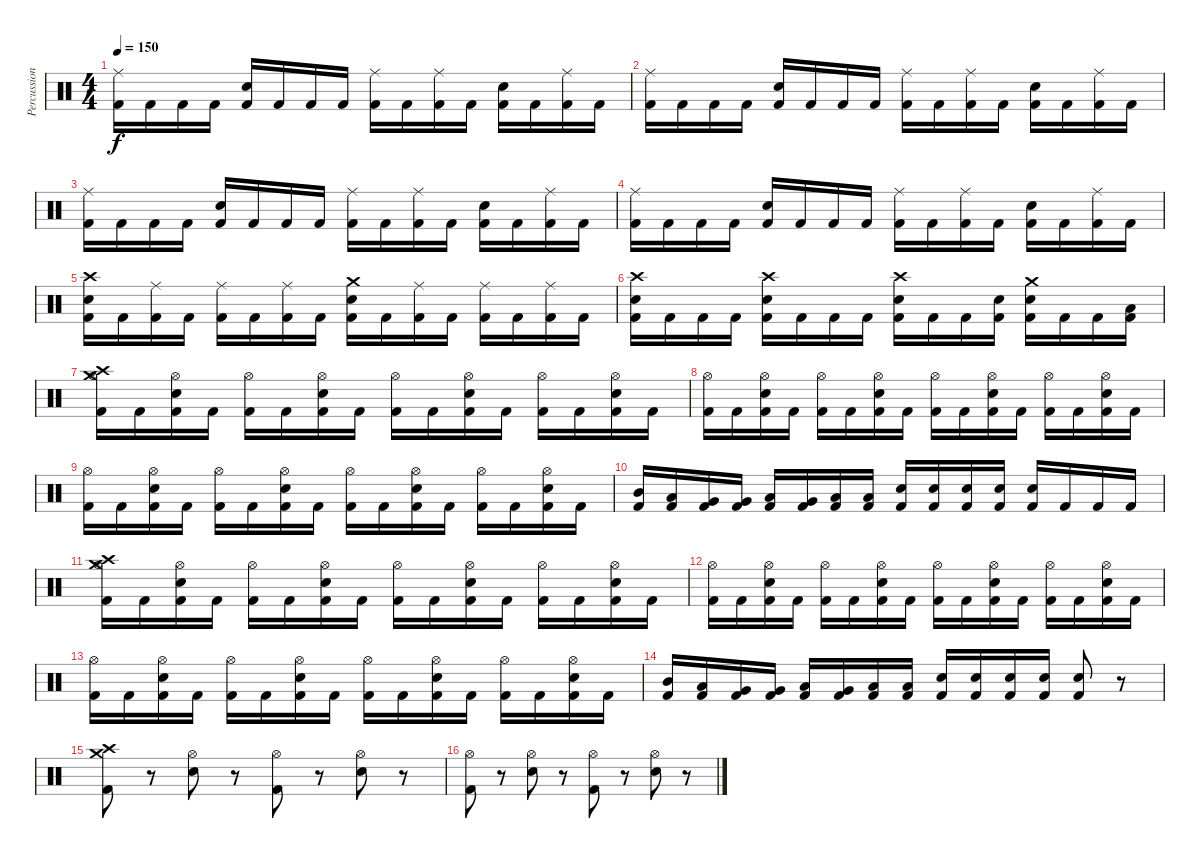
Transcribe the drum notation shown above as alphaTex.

\track ("Percussion" "Percussion") {instrument percussion}
\staff {score}
\articulation defaults
\ts (4 4)
\tempo 150
\clef neutral
\ks c
("Kick (hit) 2" "Ride (middle)").16{dy f} "Kick (hit) 2".16 "Kick (hit) 2".16 "Kick (hit) 2".16 ("Kick (hit) 2" "Electric Snare (hit)").16 "Kick (hit) 2".16 "Kick (hit) 2".16 "Kick (hit) 2".16 ("Kick (hit) 2" "Ride (middle)").16 "Kick (hit) 2".16 ("Kick (hit) 2" "Ride (middle)").16 "Kick (hit) 2".16 ("Kick (hit) 2" "Electric Snare (hit)").16 "Kick (hit) 2".16 ("Kick (hit) 2" "Ride (middle)").16 "Kick (hit) 2".16 |
("Kick (hit) 2" "Ride (middle)").16 "Kick (hit) 2".16 "Kick (hit) 2".16 "Kick (hit) 2".16 ("Kick (hit) 2" "Electric Snare (hit)").16 "Kick (hit) 2".16 "Kick (hit) 2".16 "Kick (hit) 2".16 ("Kick (hit) 2" "Ride (middle)").16 "Kick (hit) 2".16 ("Kick (hit) 2" "Ride (middle)").16 "Kick (hit) 2".16 ("Kick (hit) 2" "Electric Snare (hit)").16 "Kick (hit) 2".16 ("Kick (hit) 2" "Ride (middle)").16 "Kick (hit) 2".16 |
("Kick (hit) 2" "Ride (middle)").16 "Kick (hit) 2".16 "Kick (hit) 2".16 "Kick (hit) 2".16 ("Kick (hit) 2" "Electric Snare (hit)").16 "Kick (hit) 2".16 "Kick (hit) 2".16 "Kick (hit) 2".16 ("Kick (hit) 2" "Ride (middle)").16 "Kick (hit) 2".16 ("Kick (hit) 2" "Ride (middle)").16 "Kick (hit) 2".16 ("Kick (hit) 2" "Electric Snare (hit)").16 "Kick (hit) 2".16 ("Kick (hit) 2" "Ride (middle)").16 "Kick (hit) 2".16 |
("Kick (hit) 2" "Ride (middle)").16 "Kick (hit) 2".16 "Kick (hit) 2".16 "Kick (hit) 2".16 ("Kick (hit) 2" "Electric Snare (hit)").16 "Kick (hit) 2".16 "Kick (hit) 2".16 "Kick (hit) 2".16 ("Kick (hit) 2" "Ride (middle)").16 "Kick (hit) 2".16 ("Kick (hit) 2" "Ride (middle)").16 "Kick (hit) 2".16 ("Kick (hit) 2" "Electric Snare (hit)").16 "Kick (hit) 2".16 ("Kick (hit) 2" "Ride (middle)").16 "Kick (hit) 2".16 |
("Kick (hit) 2" "Electric Snare (hit)" "Crash high (hit)").16 "Kick (hit) 2".16 ("Kick (hit) 2" "Ride (middle)").16 "Kick (hit) 2".16 ("Kick (hit) 2" "Ride (middle)").16 "Kick (hit) 2".16 ("Kick (hit) 2" "Ride (middle)").16 "Kick (hit) 2".16 ("Kick (hit) 2" "Electric Snare (hit)" "Crash medium (hit)").16 "Kick (hit) 2".16 ("Kick (hit) 2" "Ride (middle)").16 "Kick (hit) 2".16 ("Kick (hit) 2" "Ride (middle)").16 "Kick (hit) 2".16 ("Kick (hit) 2" "Ride (middle)").16 "Kick (hit) 2".16 |
("Kick (hit) 2" "Electric Snare (hit)" "Crash high (hit)").16 "Kick (hit) 2".16 "Kick (hit) 2".16 "Kick (hit) 2".16 ("Kick (hit) 2" "Electric Snare (hit)" "Crash high (hit)").16 "Kick (hit) 2".16 "Kick (hit) 2".16 "Kick (hit) 2".16 ("Kick (hit) 2" "Electric Snare (hit)" "Crash high (hit)").16 "Kick (hit) 2".16 "Kick (hit) 2".16 ("Kick (hit) 2" "Electric Snare (hit)").16 ("Kick (hit) 2" "Electric Snare (hit)" "Crash medium (hit)").16 "Kick (hit) 2".16 "Kick (hit) 2".16 ("Kick (hit) 2" "Low Tom (hit)").16 |
("Kick (hit) 2" "Hi-Hat (open)" "Crash high (hit)" "Crash medium (hit)").16 "Kick (hit) 2".16 ("Kick (hit) 2" "Electric Snare (hit)" "Hi-Hat (open)").16 "Kick (hit) 2".16 ("Kick (hit) 2" "Hi-Hat (open)").16 "Kick (hit) 2".16 ("Kick (hit) 2" "Electric Snare (hit)" "Hi-Hat (open)").16 "Kick (hit) 2".16 ("Kick (hit) 2" "Hi-Hat (open)").16 "Kick (hit) 2".16 ("Kick (hit) 2" "Electric Snare (hit)" "Hi-Hat (open)").16 "Kick (hit) 2".16 ("Kick (hit) 2" "Hi-Hat (open)").16 "Kick (hit) 2".16 ("Kick (hit) 2" "Electric Snare (hit)" "Hi-Hat (open)").16 "Kick (hit) 2".16 |
("Kick (hit) 2" "Hi-Hat (open)").16 "Kick (hit) 2".16 ("Kick (hit) 2" "Electric Snare (hit)" "Hi-Hat (open)").16 "Kick (hit) 2".16 ("Kick (hit) 2" "Hi-Hat (open)").16 "Kick (hit) 2".16 ("Kick (hit) 2" "Electric Snare (hit)" "Hi-Hat (open)").16 "Kick (hit) 2".16 ("Kick (hit) 2" "Hi-Hat (open)").16 "Kick (hit) 2".16 ("Kick (hit) 2" "Electric Snare (hit)" "Hi-Hat (open)").16 "Kick (hit) 2".16 ("Kick (hit) 2" "Hi-Hat (open)").16 "Kick (hit) 2".16 ("Kick (hit) 2" "Electric Snare (hit)" "Hi-Hat (open)").16 "Kick (hit) 2".16 |
("Kick (hit) 2" "Hi-Hat (open)").16 "Kick (hit) 2".16 ("Kick (hit) 2" "Electric Snare (hit)" "Hi-Hat (open)").16 "Kick (hit) 2".16 ("Kick (hit) 2" "Hi-Hat (open)").16 "Kick (hit) 2".16 ("Kick (hit) 2" "Electric Snare (hit)" "Hi-Hat (open)").16 "Kick (hit) 2".16 ("Kick (hit) 2" "Hi-Hat (open)").16 "Kick (hit) 2".16 ("Kick (hit) 2" "Electric Snare (hit)" "Hi-Hat (open)").16 "Kick (hit) 2".16 ("Kick (hit) 2" "Hi-Hat (open)").16 "Kick (hit) 2".16 ("Kick (hit) 2" "Electric Snare (hit)" "Hi-Hat (open)").16 "Kick (hit) 2".16 |
("Kick (hit) 2" "Mid Tom (hit)").16 ("Kick (hit) 2" "Low Tom (hit)").16 ("Kick (hit) 2" "Very Low Tom (hit)").16 ("Kick (hit) 2" "Very Low Tom (hit)").16 ("Kick (hit) 2" "Low Tom (hit)").16 ("Kick (hit) 2" "Very Low Tom (hit)").16 ("Kick (hit) 2" "Low Floor Tom (hit)").16 ("Kick (hit) 2" "Low Floor Tom (hit)").16 ("Kick (hit) 2" "Electric Snare (hit)").16 ("Kick (hit) 2" "Electric Snare (hit)").16 ("Kick (hit) 2" "Electric Snare (hit)").16 ("Kick (hit) 2" "Electric Snare (hit)").16 ("Kick (hit) 2" "Electric Snare (hit)").16 "Kick (hit) 2".16 "Kick (hit) 2".16 "Kick (hit) 2".16 |
("Kick (hit) 2" "Hi-Hat (open)" "Crash high (hit)" "Crash medium (hit)").16 "Kick (hit) 2".16 ("Kick (hit) 2" "Electric Snare (hit)" "Hi-Hat (open)").16 "Kick (hit) 2".16 ("Kick (hit) 2" "Hi-Hat (open)").16 "Kick (hit) 2".16 ("Kick (hit) 2" "Electric Snare (hit)" "Hi-Hat (open)").16 "Kick (hit) 2".16 ("Kick (hit) 2" "Hi-Hat (open)").16 "Kick (hit) 2".16 ("Kick (hit) 2" "Electric Snare (hit)" "Hi-Hat (open)").16 "Kick (hit) 2".16 ("Kick (hit) 2" "Hi-Hat (open)").16 "Kick (hit) 2".16 ("Kick (hit) 2" "Electric Snare (hit)" "Hi-Hat (open)").16 "Kick (hit) 2".16 |
("Kick (hit) 2" "Hi-Hat (open)").16 "Kick (hit) 2".16 ("Kick (hit) 2" "Electric Snare (hit)" "Hi-Hat (open)").16 "Kick (hit) 2".16 ("Kick (hit) 2" "Hi-Hat (open)").16 "Kick (hit) 2".16 ("Kick (hit) 2" "Electric Snare (hit)" "Hi-Hat (open)").16 "Kick (hit) 2".16 ("Kick (hit) 2" "Hi-Hat (open)").16 "Kick (hit) 2".16 ("Kick (hit) 2" "Electric Snare (hit)" "Hi-Hat (open)").16 "Kick (hit) 2".16 ("Kick (hit) 2" "Hi-Hat (open)").16 "Kick (hit) 2".16 ("Kick (hit) 2" "Electric Snare (hit)" "Hi-Hat (open)").16 "Kick (hit) 2".16 |
("Kick (hit) 2" "Hi-Hat (open)").16 "Kick (hit) 2".16 ("Kick (hit) 2" "Electric Snare (hit)" "Hi-Hat (open)").16 "Kick (hit) 2".16 ("Kick (hit) 2" "Hi-Hat (open)").16 "Kick (hit) 2".16 ("Kick (hit) 2" "Electric Snare (hit)" "Hi-Hat (open)").16 "Kick (hit) 2".16 ("Kick (hit) 2" "Hi-Hat (open)").16 "Kick (hit) 2".16 ("Kick (hit) 2" "Electric Snare (hit)" "Hi-Hat (open)").16 "Kick (hit) 2".16 ("Kick (hit) 2" "Hi-Hat (open)").16 "Kick (hit) 2".16 ("Kick (hit) 2" "Electric Snare (hit)" "Hi-Hat (open)").16 "Kick (hit) 2".16 |
("Kick (hit) 2" "Mid Tom (hit)").16 ("Kick (hit) 2" "Low Tom (hit)").16 ("Kick (hit) 2" "Very Low Tom (hit)").16 ("Kick (hit) 2" "Very Low Tom (hit)").16 ("Kick (hit) 2" "Low Tom (hit)").16 ("Kick (hit) 2" "Very Low Tom (hit)").16 ("Kick (hit) 2" "Low Floor Tom (hit)").16 ("Kick (hit) 2" "Low Floor Tom (hit)").16 ("Kick (hit) 2" "Electric Snare (hit)").16 ("Kick (hit) 2" "Electric Snare (hit)").16 ("Kick (hit) 2" "Electric Snare (hit)").16 ("Kick (hit) 2" "Electric Snare (hit)").16 ("Kick (hit) 2" "Electric Snare (hit)").8 r.8 |
("Crash high (hit)" "Kick (hit) 2" "Crash medium (hit)").8 r.8 ("Hi-Hat (open)" "Electric Snare (hit)").8 r.8 ("Hi-Hat (open)" "Kick (hit) 2").8 r.8 ("Hi-Hat (open)" "Electric Snare (hit)").8 r.8 |
("Hi-Hat (open)" "Kick (hit) 2").8 r.8 ("Hi-Hat (open)" "Electric Snare (hit)").8 r.8 ("Hi-Hat (open)" "Kick (hit) 2").8 r.8 ("Hi-Hat (open)" "Electric Snare (hit)").8 r.8
